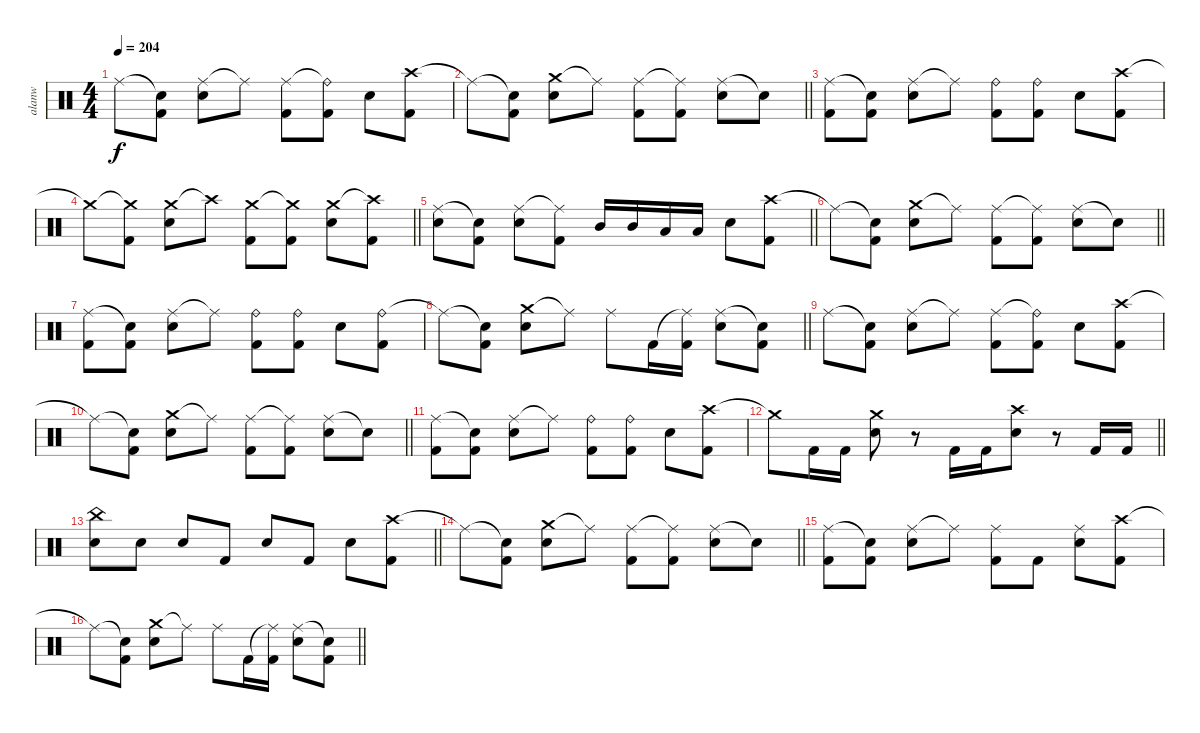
\track ("alanw" "alanw") {instrument percussion}
\staff {score}
\articulation defaults
\ts (4 4)
\tempo 204
\clef neutral
\ks c "Ride (middle)".8{dy f}
("Snare (hit)"{t} "Kick (hit) 2").8 ("Ride (middle)" "Electric Snare (hit)").8 "Ride (middle)"{t}.8 ("Ride (middle)" "Kick (hit) 2").8 ("Ride (bell)"{t} "Kick (hit) 2").8 "Electric Snare (hit)".8 ("Crash high (hit)" "Kick (hit) 2").8 |
\barLineRight lightlight "Ride (middle)"{t}.8
("Snare (hit)"{t} "Kick (hit) 2").8 ("Crash medium (hit)" "Electric Snare (hit)").8 "Ride (middle)"{t}.8 ("Ride (middle)" "Kick (hit) 2").8 ("Ride (middle)"{t} "Kick (hit) 2").8 ("Ride (middle)" "Electric Snare (hit)").8 "Snare (hit)"{t}.8 |
("Ride (middle)" "Kick (hit) 2").8 ("Snare (hit)"{t} "Kick (hit) 2").8 ("Ride (middle)" "Electric Snare (hit)").8 "Ride (middle)"{t}.8 ("Ride (bell)" "Kick (hit) 2").8 ("Ride (bell)" "Kick (hit) 2").8 "Electric Snare (hit)".8 ("Crash high (hit)" "Kick (hit) 2").8 |
\barLineRight lightlight "Crash medium (hit)"{t}.8
("Crash medium (hit)"{t} "Kick (hit) 2").8 ("Crash medium (hit)" "Electric Snare (hit)").8 "Crash high (hit)"{t}.8 ("Crash medium (hit)" "Kick (hit) 2").8 ("Crash medium (hit)"{t} "Kick (hit) 2").8 ("Crash medium (hit)" "Electric Snare (hit)").8 ("Crash high (hit)"{t} "Kick (hit) 2").8 |
\section ("" "")
\barLineRight lightlight
("Ride (middle)" "Electric Snare (hit)").8 ("Snare (hit)"{t} "Kick (hit) 2").8 ("Ride (middle)" "Electric Snare (hit)").8 ("Ride (middle)"{t} "Kick (hit) 2").8 "Mid Tom (hit)".16 "Mid Tom (hit)".16 "Low Tom (hit)".16 "Low Tom (hit)".16 "Electric Snare (hit)".8 ("Crash high (hit)" "Kick (hit) 2").8 |
\barLineRight lightlight "Ride (middle)"{t}.8
("Snare (hit)"{t} "Kick (hit) 2").8 ("Crash medium (hit)" "Electric Snare (hit)").8 "Ride (middle)"{t}.8 ("Ride (middle)" "Kick (hit) 2").8 ("Ride (middle)"{t} "Kick (hit) 2").8 ("Ride (middle)" "Electric Snare (hit)").8 "Snare (hit)"{t}.8 |
("Ride (middle)" "Kick (hit) 2").8 ("Snare (hit)"{t} "Kick (hit) 2").8 ("Ride (middle)" "Electric Snare (hit)").8 "Ride (middle)"{t}.8 ("Ride (bell)" "Kick (hit) 2").8 ("Ride (bell)" "Kick (hit) 2").8 "Electric Snare (hit)".8 ("Ride (bell)" "Kick (hit) 2").8 |
\barLineRight lightlight "Ride (middle)"{t}.8
("Snare (hit)"{t} "Kick (hit) 2").8 ("Crash medium (hit)" "Electric Snare (hit)").8 "Ride (middle)"{t}.8 "Ride (middle)".8 "Kick (hit) 2".16 ("Ride (middle)"{t} "Kick (hit) 2").16 ("Ride (middle)" "Electric Snare (hit)").8 ("Snare (hit)"{t} "Kick (hit) 2").8 |
"Ride (middle)".8 ("Snare (hit)"{t} "Kick (hit) 2").8 ("Ride (middle)" "Electric Snare (hit)").8 "Ride (middle)"{t}.8 ("Ride (middle)" "Kick (hit) 2").8 ("Ride (bell)"{t} "Kick (hit) 2").8 "Electric Snare (hit)".8 ("Crash high (hit)" "Kick (hit) 2").8 |
\barLineRight lightlight "Ride (middle)"{t}.8
("Snare (hit)"{t} "Kick (hit) 2").8 ("Crash medium (hit)" "Electric Snare (hit)").8 "Ride (middle)"{t}.8 ("Ride (middle)" "Kick (hit) 2").8 ("Ride (middle)"{t} "Kick (hit) 2").8 ("Ride (middle)" "Electric Snare (hit)").8 "Snare (hit)"{t}.8 |
("Ride (middle)" "Kick (hit) 2").8 ("Snare (hit)"{t} "Kick (hit) 2").8 ("Ride (middle)" "Electric Snare (hit)").8 "Ride (middle)"{t}.8 ("Ride (bell)" "Kick (hit) 2").8 ("Ride (bell)" "Kick (hit) 2").8 "Electric Snare (hit)".8 ("Crash high (hit)" "Kick (hit) 2").8 |
\barLineRight lightlight "Crash medium (hit)"{t}.8 "Kick (hit) 2".16 "Kick (hit) 2".16
("Crash medium (hit)" "Electric Snare (hit)").8 r.8 "Kick (hit) 2".16 "Kick (hit) 2".16 ("Crash high (hit)" "Electric Snare (hit)").8 r.8 "Kick (hit) 2".16 "Kick (hit) 2".16 |
\section ("" "")
\barLineRight lightlight
("China (hit)" "Electric Snare (hit)").8 "Electric Snare (hit)".8 "Electric Snare (hit)".8 "Kick (hit) 2".8 "Electric Snare (hit)".8 "Kick (hit) 2".8 "Electric Snare (hit)".8 ("Crash high (hit)" "Kick (hit) 2").8 |
\barLineRight lightlight "Ride (middle)"{t}.8
("Snare (hit)"{t} "Kick (hit) 2").8 ("Crash medium (hit)" "Electric Snare (hit)").8 "Ride (middle)"{t}.8 ("Ride (middle)" "Kick (hit) 2").8 ("Ride (middle)"{t} "Kick (hit) 2").8 ("Ride (middle)" "Electric Snare (hit)").8 "Snare (hit)"{t}.8 |
("Ride (middle)" "Kick (hit) 2").8 ("Snare (hit)"{t} "Kick (hit) 2").8 ("Ride (middle)" "Electric Snare (hit)").8 "Ride (middle)"{t}.8 ("Ride (middle)" "Kick (hit) 2").8 "Kick (hit) 2".8 ("Ride (middle)" "Electric Snare (hit)").8 ("Crash high (hit)" "Kick (hit) 2").8 |
\barLineRight lightlight "Ride (middle)"{t}.8
("Snare (hit)"{t} "Kick (hit) 2").8 ("Crash medium (hit)" "Electric Snare (hit)").8 "Ride (middle)"{t}.8 "Ride (middle)".8 "Kick (hit) 2".16 ("Ride (middle)"{t} "Kick (hit) 2").16 ("Ride (middle)" "Electric Snare (hit)").8 ("Snare (hit)"{t} "Kick (hit) 2").8
